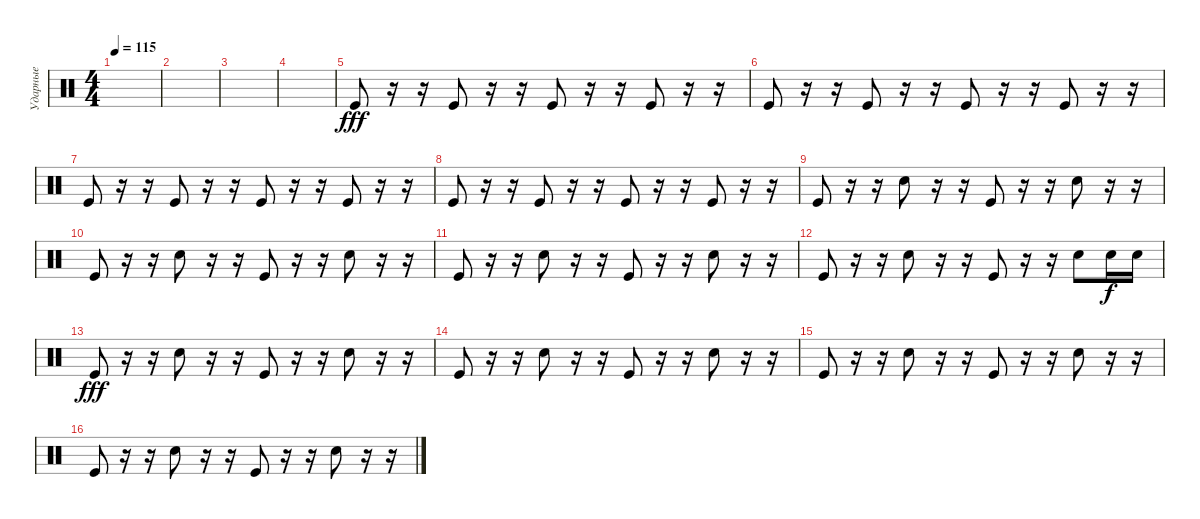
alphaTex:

\track ("Ударные" "Ударные") {instrument percussion}
\staff {score}
\articulation defaults
\ts (4 4)
\tempo 115
\clef neutral
\ks c
|
|
|
|
"Kick (hit)".8{dy fff} r.16 r.16 "Kick (hit)".8 r.16 r.16 "Kick (hit)".8 r.16 r.16 "Kick (hit)".8 r.16 r.16 |
"Kick (hit)".8 r.16 r.16 "Kick (hit)".8 r.16 r.16 "Kick (hit)".8 r.16 r.16 "Kick (hit)".8 r.16 r.16 |
"Kick (hit)".8 r.16 r.16 "Kick (hit)".8 r.16 r.16 "Kick (hit)".8 r.16 r.16 "Kick (hit)".8 r.16 r.16 |
"Kick (hit)".8 r.16 r.16 "Kick (hit)".8 r.16 r.16 "Kick (hit)".8 r.16 r.16 "Kick (hit)".8 r.16 r.16 |
"Kick (hit)".8 r.16 r.16 "Electric Snare (hit)".8 r.16 r.16 "Kick (hit)".8 r.16 r.16 "Electric Snare (hit)".8 r.16 r.16 |
"Kick (hit)".8 r.16 r.16 "Electric Snare (hit)".8 r.16 r.16 "Kick (hit)".8 r.16 r.16 "Electric Snare (hit)".8 r.16 r.16 |
"Kick (hit)".8 r.16 r.16 "Electric Snare (hit)".8 r.16 r.16 "Kick (hit)".8 r.16 r.16 "Electric Snare (hit)".8 r.16 r.16 |
"Kick (hit)".8 r.16 r.16 "Electric Snare (hit)".8 r.16 r.16 "Kick (hit)".8 r.16 r.16 "Electric Snare (hit)".8 "Electric Snare (hit)".16{dy f} "Electric Snare (hit)".16 |
"Kick (hit)".8{dy fff} r.16 r.16 "Electric Snare (hit)".8 r.16 r.16 "Kick (hit)".8 r.16 r.16 "Electric Snare (hit)".8 r.16 r.16 |
"Kick (hit)".8 r.16 r.16 "Electric Snare (hit)".8 r.16 r.16 "Kick (hit)".8 r.16 r.16 "Electric Snare (hit)".8 r.16 r.16 |
"Kick (hit)".8 r.16 r.16 "Electric Snare (hit)".8 r.16 r.16 "Kick (hit)".8 r.16 r.16 "Electric Snare (hit)".8 r.16 r.16 |
"Kick (hit)".8 r.16 r.16 "Electric Snare (hit)".8 r.16 r.16 "Kick (hit)".8 r.16 r.16 "Electric Snare (hit)".8 r.16 r.16
